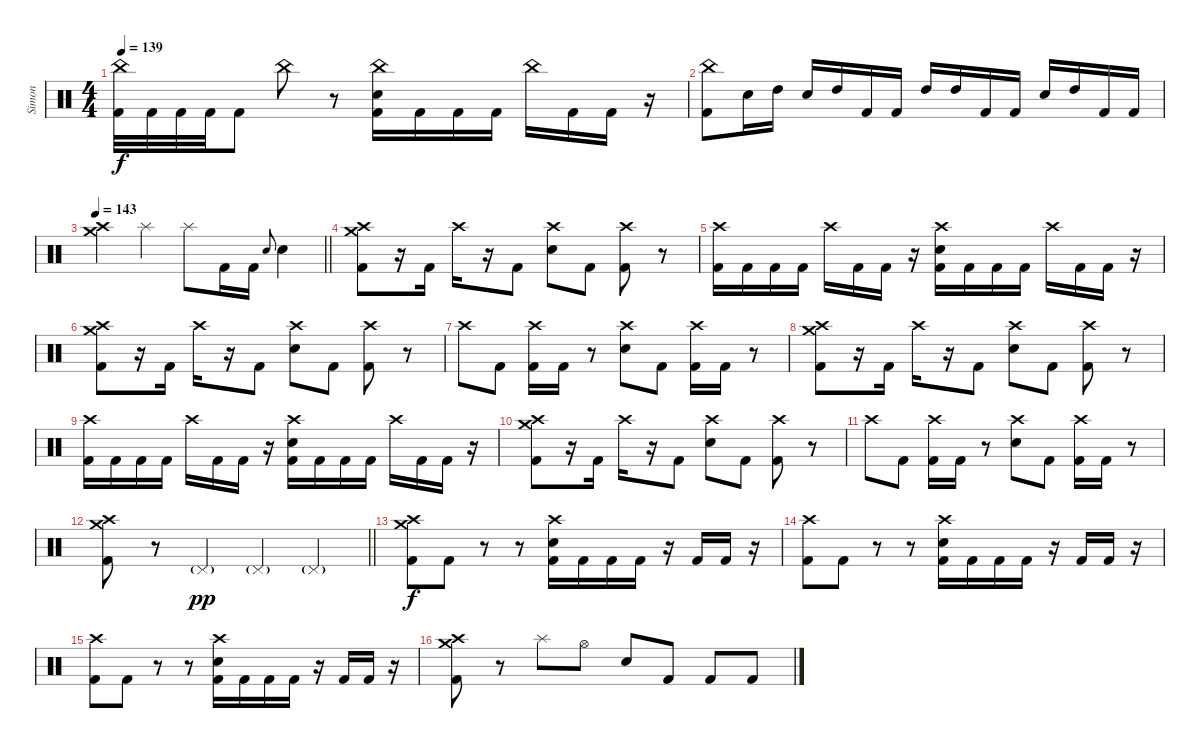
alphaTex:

\track ("Simon" "Simon") {instrument percussion}
\staff {score}
\articulation defaults
\ts (4 4)
\tempo 139
\clef neutral
\ks c
("China (hit)" "Kick (hit) 2").32{dy f} "Kick (hit) 2".32 "Kick (hit) 2".32 "Kick (hit) 2".32 "Kick (hit) 2".8 "China (hit)".8 r.8 ("China (hit)" "Electric Snare (hit)" "Kick (hit) 2").16 "Kick (hit) 2".16 "Kick (hit) 2".16 "Kick (hit) 2".16 "China (hit)".16 "Kick (hit) 2".16 "Kick (hit) 2".16 r.16 |
("China (hit)" "Kick (hit) 2").8 "Electric Snare (hit)".16 "High Tom (hit)".16 "Electric Snare (hit)".16 "High Tom (hit)".16 "Kick (hit) 2".16 "Kick (hit) 2".16 "High Tom (hit)".16 "High Tom (hit)".16 "Kick (hit) 2".16 "Kick (hit) 2".16 "Electric Snare (hit)".16 "High Tom (hit)".16 "Kick (hit) 2".16 "Kick (hit) 2".16 |
\tempo 143
\barLineRight lightlight
("Crash high (hit)" "Crash medium (hit)").4 "Splash (hit)".4 "Splash (hit)".8 "Kick (hit) 2".16 "Kick (hit) 2".16 "Electric Snare (hit)".8{gr onbeat} "Electric Snare (hit)".4 |
\section ("" "")
("Crash high (hit)" "Crash medium (hit)" "Kick (hit) 2").8 r.16 "Kick (hit) 2".16 "Crash high (hit)".16 r.16 "Kick (hit) 2".8 ("Crash high (hit)" "Electric Snare (hit)").8 "Kick (hit) 2".8 ("Crash high (hit)" "Kick (hit) 2").8 r.8 |
("Crash high (hit)" "Kick (hit) 2").16 "Kick (hit) 2".16 "Kick (hit) 2".16 "Kick (hit) 2".16 "Crash high (hit)".16 "Kick (hit) 2".16 "Kick (hit) 2".16 r.16 ("Crash high (hit)" "Electric Snare (hit)" "Kick (hit) 2").16 "Kick (hit) 2".16 "Kick (hit) 2".16 "Kick (hit) 2".16 "Crash high (hit)".16 "Kick (hit) 2".16 "Kick (hit) 2".16 r.16 |
("Crash high (hit)" "Crash medium (hit)" "Kick (hit) 2").8 r.16 "Kick (hit) 2".16 "Crash high (hit)".16 r.16 "Kick (hit) 2".8 ("Crash high (hit)" "Electric Snare (hit)").8 "Kick (hit) 2".8 ("Crash high (hit)" "Kick (hit) 2").8 r.8 |
"Crash high (hit)".8 "Kick (hit) 2".8 ("Crash high (hit)" "Kick (hit) 2").16 "Kick (hit) 2".16 r.8 ("Crash high (hit)" "Electric Snare (hit)").8 "Kick (hit) 2".8 ("Crash high (hit)" "Kick (hit) 2").16 "Kick (hit) 2".16 r.8 |
("Crash high (hit)" "Crash medium (hit)" "Kick (hit) 2").8 r.16 "Kick (hit) 2".16 "Crash high (hit)".16 r.16 "Kick (hit) 2".8 ("Crash high (hit)" "Electric Snare (hit)").8 "Kick (hit) 2".8 ("Crash high (hit)" "Kick (hit) 2").8 r.8 |
("Crash high (hit)" "Kick (hit) 2").16 "Kick (hit) 2".16 "Kick (hit) 2".16 "Kick (hit) 2".16 "Crash high (hit)".16 "Kick (hit) 2".16 "Kick (hit) 2".16 r.16 ("Crash high (hit)" "Electric Snare (hit)" "Kick (hit) 2").16 "Kick (hit) 2".16 "Kick (hit) 2".16 "Kick (hit) 2".16 "Crash high (hit)".16 "Kick (hit) 2".16 "Kick (hit) 2".16 r.16 |
("Crash high (hit)" "Crash medium (hit)" "Kick (hit) 2").8 r.16 "Kick (hit) 2".16 "Crash high (hit)".16 r.16 "Kick (hit) 2".8 ("Crash high (hit)" "Electric Snare (hit)").8 "Kick (hit) 2".8 ("Crash high (hit)" "Kick (hit) 2").8 r.8 |
"Crash high (hit)".8 "Kick (hit) 2".8 ("Crash high (hit)" "Kick (hit) 2").16 "Kick (hit) 2".16 r.8 ("Crash high (hit)" "Electric Snare (hit)").8 "Kick (hit) 2".8 ("Crash high (hit)" "Kick (hit) 2").16 "Kick (hit) 2".16 r.8 |
\barLineRight lightlight
("Crash high (hit)" "Crash medium (hit)" "Kick (hit) 2").8 r.8 "Pedal Hi-Hat (hit)"{g}.4{dy pp} "Pedal Hi-Hat (hit)"{g}.4 "Pedal Hi-Hat (hit)"{g}.4 |
\section ("" "")
("Crash high (hit)" "Crash medium (hit)" "Kick (hit) 2").8{dy f} "Kick (hit) 2".8 r.8 r.8 ("Crash high (hit)" "Electric Snare (hit)" "Kick (hit) 2").16 "Kick (hit) 2".16 "Kick (hit) 2".16 "Kick (hit) 2".16 r.16 "Kick (hit) 2".16 "Kick (hit) 2".16 r.16 |
("Crash high (hit)" "Kick (hit) 2").8 "Kick (hit) 2".8 r.8 r.8 ("Crash high (hit)" "Electric Snare (hit)" "Kick (hit) 2").16 "Kick (hit) 2".16 "Kick (hit) 2".16 "Kick (hit) 2".16 r.16 "Kick (hit) 2".16 "Kick (hit) 2".16 r.16 |
("Crash high (hit)" "Kick (hit) 2").8 "Kick (hit) 2".8 r.8 r.8 ("Crash high (hit)" "Electric Snare (hit)" "Kick (hit) 2").16 "Kick (hit) 2".16 "Kick (hit) 2".16 "Kick (hit) 2".16 r.16 "Kick (hit) 2".16 "Kick (hit) 2".16 r.16 |
("Crash high (hit)" "Crash medium (hit)" "Kick (hit) 2").8 r.8 "Splash (hit)".8 "Hi-Hat (open)".8 "Electric Snare (hit)".8 "Kick (hit) 2".8 "Kick (hit) 2".8 "Kick (hit) 2".8
